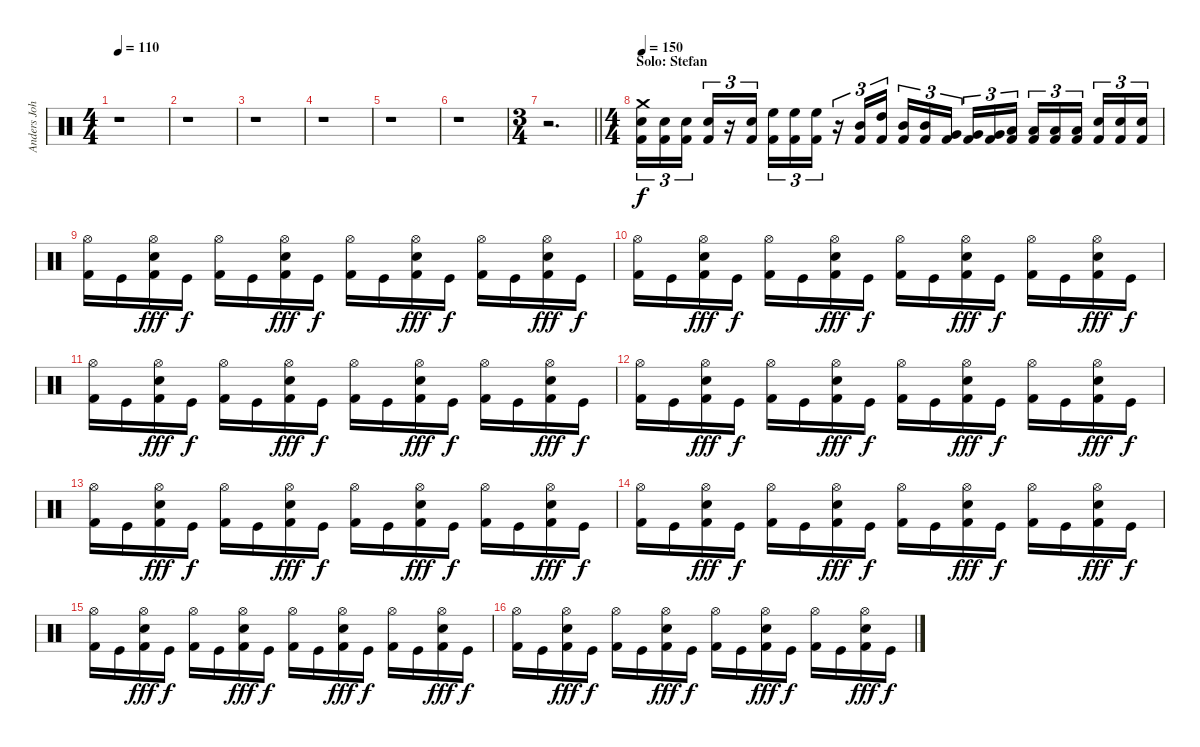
\track ("Anders Johansson" "Anders Joh") {instrument percussion}
\staff {score}
\articulation defaults
\ts (4 4)
\tempo 110
\clef neutral
\ks c
r.1{dy f} |
r.1 |
r.1 |
r.1 |
r.1 |
r.1 |
\ts (3 4)
\barLineRight lightlight
r.2{d} |
\ts (4 4)
\section ("" "Solo: Stefan")
\tempo 150
("Crash medium (hit)" "Electric Snare (hit)" "Kick (hit) 2").16{tu (3 2)} ("Electric Snare (hit)" "Kick (hit) 2").16{tu (3 2)} ("Electric Snare (hit)" "Kick (hit) 2").16{tu (3 2) beam splitsecondary} ("Electric Snare (hit)" "Kick (hit) 2").16{tu (3 2)} r.16{tu (3 2)} ("Electric Snare (hit)" "Kick (hit) 2").16{tu (3 2)} ("High Floor Tom (hit)" "Kick (hit) 2").16{tu (3 2)} ("High Floor Tom (hit)" "Kick (hit) 2").16{tu (3 2)} ("High Floor Tom (hit)" "Kick (hit) 2").16{tu (3 2)} r.16{tu (3 2)} ("Mid Tom (hit)" "Kick (hit) 2").16{tu (3 2)} ("High Tom (hit)" "Kick (hit) 2").16{tu (3 2)} ("Mid Tom (hit)" "Kick (hit) 2").16{tu (3 2)} ("Mid Tom (hit)" "Kick (hit) 2").16{tu (3 2)} ("Very Low Tom (hit)" "Kick (hit) 2").16{tu (3 2) beam splitsecondary} ("Very Low Tom (hit)" "Kick (hit) 2").16{tu (3 2)} ("Very Low Tom (hit)" "Kick (hit) 2").16{tu (3 2)} ("Low Floor Tom (hit)" "Kick (hit) 2").16{tu (3 2)} ("Low Floor Tom (hit)" "Kick (hit) 2").16{tu (3 2)} ("Low Floor Tom (hit)" "Kick (hit) 2").16{tu (3 2)} ("Low Floor Tom (hit)" "Kick (hit) 2").16{tu (3 2) beam splitsecondary} ("Electric Snare (hit)" "Kick (hit) 2").16{tu (3 2)} ("Electric Snare (hit)" "Kick (hit) 2").16{tu (3 2)} ("Electric Snare (hit)" "Kick (hit) 2").16{tu (3 2)} |
("Hi-Hat (open)" "Kick (hit) 2").16 "Kick (hit)".16 ("Hi-Hat (open)" "Electric Snare (hit)" "Kick (hit) 2").16{dy fff} "Kick (hit)".16{dy f} ("Hi-Hat (open)" "Kick (hit) 2").16 "Kick (hit)".16 ("Hi-Hat (open)" "Electric Snare (hit)" "Kick (hit) 2").16{dy fff} "Kick (hit)".16{dy f} ("Hi-Hat (open)" "Kick (hit) 2").16 "Kick (hit)".16 ("Hi-Hat (open)" "Electric Snare (hit)" "Kick (hit) 2").16{dy fff} "Kick (hit)".16{dy f} ("Hi-Hat (open)" "Kick (hit) 2").16 "Kick (hit)".16 ("Hi-Hat (open)" "Electric Snare (hit)" "Kick (hit) 2").16{dy fff} "Kick (hit)".16{dy f} |
("Hi-Hat (open)" "Kick (hit) 2").16 "Kick (hit)".16 ("Hi-Hat (open)" "Electric Snare (hit)" "Kick (hit) 2").16{dy fff} "Kick (hit)".16{dy f} ("Hi-Hat (open)" "Kick (hit) 2").16 "Kick (hit)".16 ("Hi-Hat (open)" "Electric Snare (hit)" "Kick (hit) 2").16{dy fff} "Kick (hit)".16{dy f} ("Hi-Hat (open)" "Kick (hit) 2").16 "Kick (hit)".16 ("Hi-Hat (open)" "Electric Snare (hit)" "Kick (hit) 2").16{dy fff} "Kick (hit)".16{dy f} ("Hi-Hat (open)" "Kick (hit) 2").16 "Kick (hit)".16 ("Hi-Hat (open)" "Electric Snare (hit)" "Kick (hit) 2").16{dy fff} "Kick (hit)".16{dy f} |
("Hi-Hat (open)" "Kick (hit) 2").16 "Kick (hit)".16 ("Hi-Hat (open)" "Electric Snare (hit)" "Kick (hit) 2").16{dy fff} "Kick (hit)".16{dy f} ("Hi-Hat (open)" "Kick (hit) 2").16 "Kick (hit)".16 ("Hi-Hat (open)" "Electric Snare (hit)" "Kick (hit) 2").16{dy fff} "Kick (hit)".16{dy f} ("Hi-Hat (open)" "Kick (hit) 2").16 "Kick (hit)".16 ("Hi-Hat (open)" "Electric Snare (hit)" "Kick (hit) 2").16{dy fff} "Kick (hit)".16{dy f} ("Hi-Hat (open)" "Kick (hit) 2").16 "Kick (hit)".16 ("Hi-Hat (open)" "Electric Snare (hit)" "Kick (hit) 2").16{dy fff} "Kick (hit)".16{dy f} |
("Hi-Hat (open)" "Kick (hit) 2").16 "Kick (hit)".16 ("Hi-Hat (open)" "Electric Snare (hit)" "Kick (hit) 2").16{dy fff} "Kick (hit)".16{dy f} ("Hi-Hat (open)" "Kick (hit) 2").16 "Kick (hit)".16 ("Hi-Hat (open)" "Electric Snare (hit)" "Kick (hit) 2").16{dy fff} "Kick (hit)".16{dy f} ("Hi-Hat (open)" "Kick (hit) 2").16 "Kick (hit)".16 ("Hi-Hat (open)" "Electric Snare (hit)" "Kick (hit) 2").16{dy fff} "Kick (hit)".16{dy f} ("Hi-Hat (open)" "Kick (hit) 2").16 "Kick (hit)".16 ("Hi-Hat (open)" "Electric Snare (hit)" "Kick (hit) 2").16{dy fff} "Kick (hit)".16{dy f} |
("Hi-Hat (open)" "Kick (hit) 2").16 "Kick (hit)".16 ("Hi-Hat (open)" "Electric Snare (hit)" "Kick (hit) 2").16{dy fff} "Kick (hit)".16{dy f} ("Hi-Hat (open)" "Kick (hit) 2").16 "Kick (hit)".16 ("Hi-Hat (open)" "Electric Snare (hit)" "Kick (hit) 2").16{dy fff} "Kick (hit)".16{dy f} ("Hi-Hat (open)" "Kick (hit) 2").16 "Kick (hit)".16 ("Hi-Hat (open)" "Electric Snare (hit)" "Kick (hit) 2").16{dy fff} "Kick (hit)".16{dy f} ("Hi-Hat (open)" "Kick (hit) 2").16 "Kick (hit)".16 ("Hi-Hat (open)" "Electric Snare (hit)" "Kick (hit) 2").16{dy fff} "Kick (hit)".16{dy f} |
("Hi-Hat (open)" "Kick (hit) 2").16 "Kick (hit)".16 ("Hi-Hat (open)" "Electric Snare (hit)" "Kick (hit) 2").16{dy fff} "Kick (hit)".16{dy f} ("Hi-Hat (open)" "Kick (hit) 2").16 "Kick (hit)".16 ("Hi-Hat (open)" "Electric Snare (hit)" "Kick (hit) 2").16{dy fff} "Kick (hit)".16{dy f} ("Hi-Hat (open)" "Kick (hit) 2").16 "Kick (hit)".16 ("Hi-Hat (open)" "Electric Snare (hit)" "Kick (hit) 2").16{dy fff} "Kick (hit)".16{dy f} ("Hi-Hat (open)" "Kick (hit) 2").16 "Kick (hit)".16 ("Hi-Hat (open)" "Electric Snare (hit)" "Kick (hit) 2").16{dy fff} "Kick (hit)".16{dy f} |
("Hi-Hat (open)" "Kick (hit) 2").16 "Kick (hit)".16 ("Hi-Hat (open)" "Electric Snare (hit)" "Kick (hit) 2").16{dy fff} "Kick (hit)".16{dy f} ("Hi-Hat (open)" "Kick (hit) 2").16 "Kick (hit)".16 ("Hi-Hat (open)" "Electric Snare (hit)" "Kick (hit) 2").16{dy fff} "Kick (hit)".16{dy f} ("Hi-Hat (open)" "Kick (hit) 2").16 "Kick (hit)".16 ("Hi-Hat (open)" "Electric Snare (hit)" "Kick (hit) 2").16{dy fff} "Kick (hit)".16{dy f} ("Hi-Hat (open)" "Kick (hit) 2").16 "Kick (hit)".16 ("Hi-Hat (open)" "Electric Snare (hit)" "Kick (hit) 2").16{dy fff} "Kick (hit)".16{dy f} |
("Hi-Hat (open)" "Kick (hit) 2").16 "Kick (hit)".16 ("Hi-Hat (open)" "Electric Snare (hit)" "Kick (hit) 2").16{dy fff} "Kick (hit)".16{dy f} ("Hi-Hat (open)" "Kick (hit) 2").16 "Kick (hit)".16 ("Hi-Hat (open)" "Electric Snare (hit)" "Kick (hit) 2").16{dy fff} "Kick (hit)".16{dy f} ("Hi-Hat (open)" "Kick (hit) 2").16 "Kick (hit)".16 ("Hi-Hat (open)" "Electric Snare (hit)" "Kick (hit) 2").16{dy fff} "Kick (hit)".16{dy f} ("Hi-Hat (open)" "Kick (hit) 2").16 "Kick (hit)".16 ("Hi-Hat (open)" "Electric Snare (hit)" "Kick (hit) 2").16{dy fff} "Kick (hit)".16{dy f}
